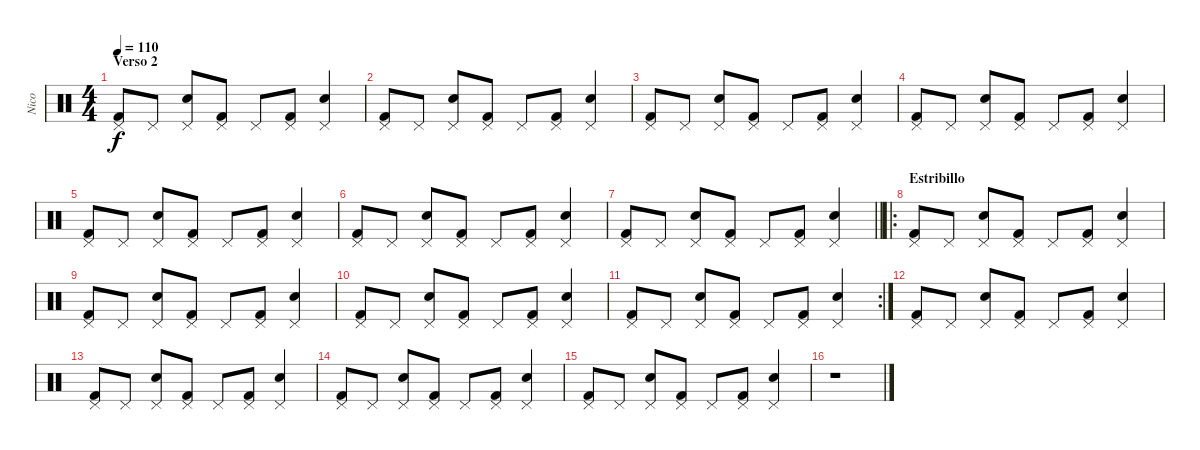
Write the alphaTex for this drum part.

\track ("Nico" "Nico") {instrument percussion}
\staff {score}
\articulation defaults
\ts (4 4)
\section ("" "Verso 2")
\tempo 110
\clef neutral
\ks c
("Pedal Hi-Hat (hit)" "Kick (hit) 2").8{dy f} "Pedal Hi-Hat (hit)".8 ("Pedal Hi-Hat (hit)" "Snare (hit) 2").8 ("Pedal Hi-Hat (hit)" "Kick (hit) 2").8 "Pedal Hi-Hat (hit)".8 ("Pedal Hi-Hat (hit)" "Kick (hit) 2").8 ("Pedal Hi-Hat (hit)" "Snare (hit) 2").4 |
("Pedal Hi-Hat (hit)" "Kick (hit) 2").8 "Pedal Hi-Hat (hit)".8 ("Pedal Hi-Hat (hit)" "Snare (hit) 2").8 ("Pedal Hi-Hat (hit)" "Kick (hit) 2").8 "Pedal Hi-Hat (hit)".8 ("Pedal Hi-Hat (hit)" "Kick (hit) 2").8 ("Pedal Hi-Hat (hit)" "Snare (hit) 2").4 |
("Pedal Hi-Hat (hit)" "Kick (hit) 2").8 "Pedal Hi-Hat (hit)".8 ("Pedal Hi-Hat (hit)" "Snare (hit) 2").8 ("Pedal Hi-Hat (hit)" "Kick (hit) 2").8 "Pedal Hi-Hat (hit)".8 ("Pedal Hi-Hat (hit)" "Kick (hit) 2").8 ("Pedal Hi-Hat (hit)" "Snare (hit) 2").4 |
("Pedal Hi-Hat (hit)" "Kick (hit) 2").8 "Pedal Hi-Hat (hit)".8 ("Pedal Hi-Hat (hit)" "Snare (hit) 2").8 ("Pedal Hi-Hat (hit)" "Kick (hit) 2").8 "Pedal Hi-Hat (hit)".8 ("Pedal Hi-Hat (hit)" "Kick (hit) 2").8 ("Pedal Hi-Hat (hit)" "Snare (hit) 2").4 |
("Pedal Hi-Hat (hit)" "Kick (hit) 2").8 "Pedal Hi-Hat (hit)".8 ("Pedal Hi-Hat (hit)" "Snare (hit) 2").8 ("Pedal Hi-Hat (hit)" "Kick (hit) 2").8 "Pedal Hi-Hat (hit)".8 ("Pedal Hi-Hat (hit)" "Kick (hit) 2").8 ("Pedal Hi-Hat (hit)" "Snare (hit) 2").4 |
("Pedal Hi-Hat (hit)" "Kick (hit) 2").8 "Pedal Hi-Hat (hit)".8 ("Pedal Hi-Hat (hit)" "Snare (hit) 2").8 ("Pedal Hi-Hat (hit)" "Kick (hit) 2").8 "Pedal Hi-Hat (hit)".8 ("Pedal Hi-Hat (hit)" "Kick (hit) 2").8 ("Pedal Hi-Hat (hit)" "Snare (hit) 2").4 |
\barLineRight lightlight
("Pedal Hi-Hat (hit)" "Kick (hit) 2").8 "Pedal Hi-Hat (hit)".8 ("Pedal Hi-Hat (hit)" "Snare (hit) 2").8 ("Pedal Hi-Hat (hit)" "Kick (hit) 2").8 "Pedal Hi-Hat (hit)".8 ("Pedal Hi-Hat (hit)" "Kick (hit) 2").8 ("Pedal Hi-Hat (hit)" "Snare (hit) 2").4 |
\ro
\section ("" "Estribillo")
("Pedal Hi-Hat (hit)" "Kick (hit) 2").8 "Pedal Hi-Hat (hit)".8 ("Pedal Hi-Hat (hit)" "Snare (hit) 2").8 ("Pedal Hi-Hat (hit)" "Kick (hit) 2").8 "Pedal Hi-Hat (hit)".8 ("Pedal Hi-Hat (hit)" "Kick (hit) 2").8 ("Pedal Hi-Hat (hit)" "Snare (hit) 2").4 |
("Pedal Hi-Hat (hit)" "Kick (hit) 2").8 "Pedal Hi-Hat (hit)".8 ("Pedal Hi-Hat (hit)" "Snare (hit) 2").8 ("Pedal Hi-Hat (hit)" "Kick (hit) 2").8 "Pedal Hi-Hat (hit)".8 ("Pedal Hi-Hat (hit)" "Kick (hit) 2").8 ("Pedal Hi-Hat (hit)" "Snare (hit) 2").4 |
("Pedal Hi-Hat (hit)" "Kick (hit) 2").8 "Pedal Hi-Hat (hit)".8 ("Pedal Hi-Hat (hit)" "Snare (hit) 2").8 ("Pedal Hi-Hat (hit)" "Kick (hit) 2").8 "Pedal Hi-Hat (hit)".8 ("Pedal Hi-Hat (hit)" "Kick (hit) 2").8 ("Pedal Hi-Hat (hit)" "Snare (hit) 2").4 |
\rc 2
("Pedal Hi-Hat (hit)" "Kick (hit) 2").8 "Pedal Hi-Hat (hit)".8 ("Pedal Hi-Hat (hit)" "Snare (hit) 2").8 ("Pedal Hi-Hat (hit)" "Kick (hit) 2").8 "Pedal Hi-Hat (hit)".8 ("Pedal Hi-Hat (hit)" "Kick (hit) 2").8 ("Pedal Hi-Hat (hit)" "Snare (hit) 2").4 |
("Pedal Hi-Hat (hit)" "Kick (hit) 2").8 "Pedal Hi-Hat (hit)".8 ("Pedal Hi-Hat (hit)" "Snare (hit) 2").8 ("Pedal Hi-Hat (hit)" "Kick (hit) 2").8 "Pedal Hi-Hat (hit)".8 ("Pedal Hi-Hat (hit)" "Kick (hit) 2").8 ("Pedal Hi-Hat (hit)" "Snare (hit) 2").4 |
("Pedal Hi-Hat (hit)" "Kick (hit) 2").8 "Pedal Hi-Hat (hit)".8 ("Pedal Hi-Hat (hit)" "Snare (hit) 2").8 ("Pedal Hi-Hat (hit)" "Kick (hit) 2").8 "Pedal Hi-Hat (hit)".8 ("Pedal Hi-Hat (hit)" "Kick (hit) 2").8 ("Pedal Hi-Hat (hit)" "Snare (hit) 2").4 |
("Pedal Hi-Hat (hit)" "Kick (hit) 2").8 "Pedal Hi-Hat (hit)".8 ("Pedal Hi-Hat (hit)" "Snare (hit) 2").8 ("Pedal Hi-Hat (hit)" "Kick (hit) 2").8 "Pedal Hi-Hat (hit)".8 ("Pedal Hi-Hat (hit)" "Kick (hit) 2").8 ("Pedal Hi-Hat (hit)" "Snare (hit) 2").4 |
("Pedal Hi-Hat (hit)" "Kick (hit) 2").8 "Pedal Hi-Hat (hit)".8 ("Pedal Hi-Hat (hit)" "Snare (hit) 2").8 ("Pedal Hi-Hat (hit)" "Kick (hit) 2").8 "Pedal Hi-Hat (hit)".8 ("Pedal Hi-Hat (hit)" "Kick (hit) 2").8 ("Pedal Hi-Hat (hit)" "Snare (hit) 2").4 |
r.1
